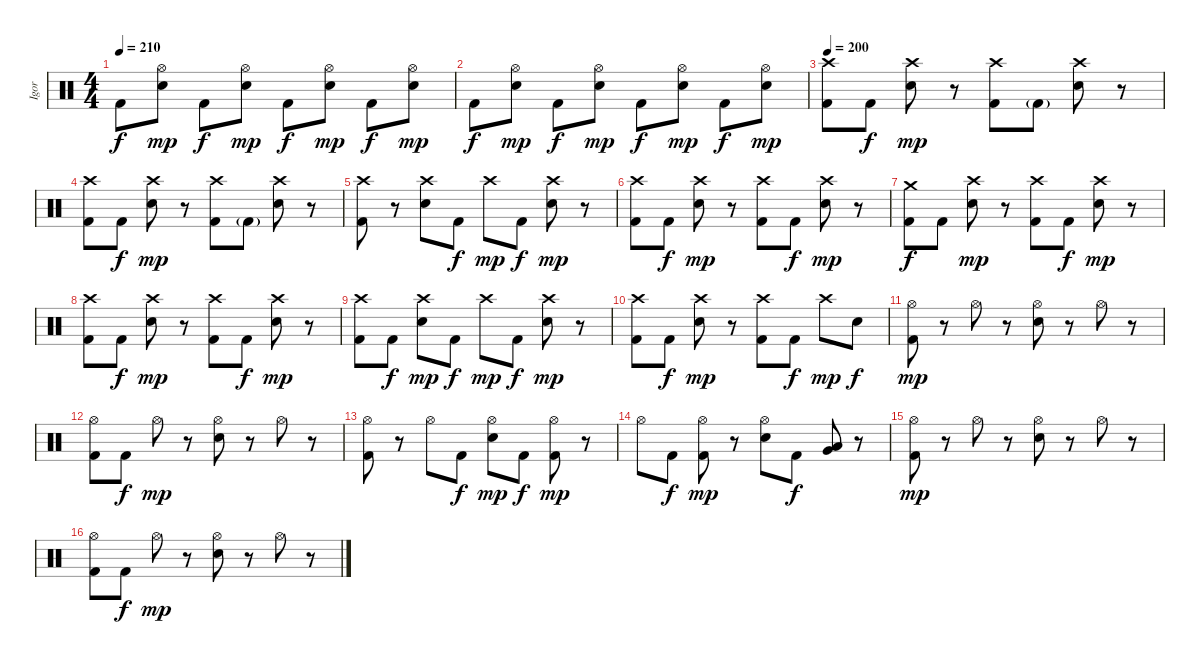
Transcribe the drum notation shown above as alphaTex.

\track ("Igor" "Igor") {instrument percussion}
\staff {score}
\articulation defaults
\ts (4 4)
\tempo 210
\clef neutral
\ks c "Kick (hit) 2".8{dy f}
("Hi-Hat (open)" "Electric Snare (hit)").8{dy mp} "Kick (hit) 2".8{dy f} ("Hi-Hat (open)" "Electric Snare (hit)").8{dy mp} "Kick (hit) 2".8{dy f} ("Hi-Hat (open)" "Electric Snare (hit)").8{dy mp} "Kick (hit) 2".8{dy f} ("Hi-Hat (open)" "Electric Snare (hit)").8{dy mp} |
"Kick (hit) 2".8{dy f} ("Hi-Hat (open)" "Electric Snare (hit)").8{dy mp} "Kick (hit) 2".8{dy f} ("Hi-Hat (open)" "Electric Snare (hit)").8{dy mp} "Kick (hit) 2".8{dy f} ("Hi-Hat (open)" "Electric Snare (hit)").8{dy mp} "Kick (hit) 2".8{dy f} ("Hi-Hat (open)" "Electric Snare (hit)").8{dy mp} |
\tempo 200
("Crash high (hit)" "Kick (hit) 2").8 "Kick (hit) 2".8{dy f} ("Crash high (hit)" "Electric Snare (hit)").8{dy mp} r.8 ("Crash high (hit)" "Kick (hit) 2").8 "Kick (hit) 2"{g}.8 ("Crash high (hit)" "Electric Snare (hit)").8 r.8 |
("Crash high (hit)" "Kick (hit) 2").8 "Kick (hit) 2".8{dy f} ("Crash high (hit)" "Electric Snare (hit)").8{dy mp} r.8 ("Crash high (hit)" "Kick (hit) 2").8 "Kick (hit) 2"{g}.8 ("Crash high (hit)" "Electric Snare (hit)").8 r.8 |
("Crash high (hit)" "Kick (hit) 2").8 r.8 ("Crash high (hit)" "Electric Snare (hit)").8 "Kick (hit) 2".8{dy f} "Crash high (hit)".8{dy mp} "Kick (hit) 2".8{dy f} ("Crash high (hit)" "Electric Snare (hit)").8{dy mp} r.8 |
("Crash high (hit)" "Kick (hit) 2").8 "Kick (hit) 2".8{dy f} ("Crash high (hit)" "Electric Snare (hit)").8{dy mp} r.8 ("Crash high (hit)" "Kick (hit) 2").8 "Kick (hit) 2".8{dy f} ("Crash high (hit)" "Electric Snare (hit)").8{dy mp} r.8 |
("Crash medium (hit)" "Kick (hit) 2").8{dy f} "Kick (hit) 2".8 ("Crash high (hit)" "Electric Snare (hit)").8{dy mp} r.8 ("Crash high (hit)" "Kick (hit) 2").8 "Kick (hit) 2".8{dy f} ("Crash high (hit)" "Electric Snare (hit)").8{dy mp} r.8 |
("Crash high (hit)" "Kick (hit) 2").8 "Kick (hit) 2".8{dy f} ("Crash high (hit)" "Electric Snare (hit)").8{dy mp} r.8 ("Crash high (hit)" "Kick (hit) 2").8 "Kick (hit) 2".8{dy f} ("Crash high (hit)" "Electric Snare (hit)").8{dy mp} r.8 |
("Crash high (hit)" "Kick (hit) 2").8 "Kick (hit) 2".8{dy f} ("Crash high (hit)" "Electric Snare (hit)").8{dy mp} "Kick (hit) 2".8{dy f} "Crash high (hit)".8{dy mp} "Kick (hit) 2".8{dy f} ("Crash high (hit)" "Electric Snare (hit)").8{dy mp} r.8 |
("Crash high (hit)" "Kick (hit) 2").8 "Kick (hit) 2".8{dy f} ("Crash high (hit)" "Electric Snare (hit)").8{dy mp} r.8 ("Crash high (hit)" "Kick (hit) 2").8 "Kick (hit) 2".8{dy f} "Crash high (hit)".8{dy mp} "Electric Snare (hit)".8{dy f} |
("Hi-Hat (open)" "Kick (hit) 2").8{dy mp} r.8 "Hi-Hat (open)".8 r.8 ("Hi-Hat (open)" "Electric Snare (hit)").8 r.8 "Hi-Hat (open)".8 r.8 |
("Hi-Hat (open)" "Kick (hit) 2").8 "Kick (hit) 2".8{dy f} "Hi-Hat (open)".8{dy mp} r.8 ("Hi-Hat (open)" "Electric Snare (hit)").8 r.8 "Hi-Hat (open)".8 r.8 |
("Hi-Hat (open)" "Kick (hit) 2").8 r.8 "Hi-Hat (open)".8 "Kick (hit) 2".8{dy f} ("Hi-Hat (open)" "Electric Snare (hit)").8{dy mp} "Kick (hit) 2".8{dy f} ("Hi-Hat (open)" "Kick (hit) 2").8{dy mp} r.8 |
"Hi-Hat (open)".8 "Kick (hit) 2".8{dy f} ("Hi-Hat (open)" "Kick (hit) 2").8{dy mp} r.8 ("Hi-Hat (open)" "Electric Snare (hit)").8 "Kick (hit) 2".8{dy f} ("Very Low Tom (hit)" "Low Floor Tom (hit)").8{bd 60} r.8 |
("Hi-Hat (open)" "Kick (hit) 2").8{dy mp} r.8 "Hi-Hat (open)".8 r.8 ("Hi-Hat (open)" "Electric Snare (hit)").8 r.8 "Hi-Hat (open)".8 r.8 |
("Hi-Hat (open)" "Kick (hit) 2").8 "Kick (hit) 2".8{dy f} "Hi-Hat (open)".8{dy mp} r.8 ("Hi-Hat (open)" "Electric Snare (hit)").8 r.8 "Hi-Hat (open)".8 r.8
